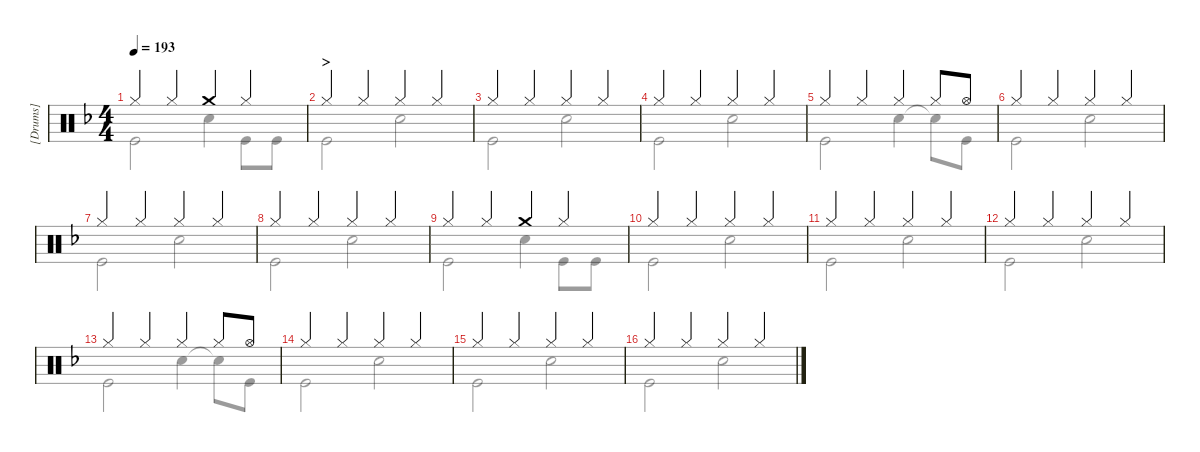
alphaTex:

\hideDynamics
\bracketExtendMode groupsimilarinstruments
\firstSystemTrackNameMode fullname
\otherSystemsTrackNameMode fullname
\otherSystemsTrackNameOrientation horizontal
\track ("[Drums]" "Drums") {instrument percussion}
\staff {score}
\articulation defaults
\voice
\ts (4 4)
\tempo 193
\clef neutral
\ks f "Hi-Hat (closed)".4{dy ff} "Hi-Hat (closed)".4 "Crash medium (hit)".4 "Hi-Hat (closed)".4
|
\section ("" ">")
"Hi-Hat (closed)".4 "Hi-Hat (closed)".4 "Hi-Hat (closed)".4 "Hi-Hat (closed)".4 |
"Hi-Hat (closed)".4 "Hi-Hat (closed)".4 "Hi-Hat (closed)".4 "Hi-Hat (closed)".4 |
"Hi-Hat (closed)".4 "Hi-Hat (closed)".4 "Hi-Hat (closed)".4 "Hi-Hat (closed)".4 |
"Hi-Hat (closed)".4 "Hi-Hat (closed)".4 "Hi-Hat (closed)".4 "Hi-Hat (closed)".8 "Hi-Hat (open)".8 |
"Hi-Hat (closed)".4 "Hi-Hat (closed)".4 "Hi-Hat (closed)".4 "Hi-Hat (closed)".4 |
"Hi-Hat (closed)".4 "Hi-Hat (closed)".4 "Hi-Hat (closed)".4 "Hi-Hat (closed)".4 |
"Hi-Hat (closed)".4 "Hi-Hat (closed)".4 "Hi-Hat (closed)".4 "Hi-Hat (closed)".4 |
"Hi-Hat (closed)".4 "Hi-Hat (closed)".4 "Crash medium (hit)".4 "Hi-Hat (closed)".4 |
"Hi-Hat (closed)".4 "Hi-Hat (closed)".4 "Hi-Hat (closed)".4 "Hi-Hat (closed)".4 |
"Hi-Hat (closed)".4 "Hi-Hat (closed)".4 "Hi-Hat (closed)".4 "Hi-Hat (closed)".4 |
"Hi-Hat (closed)".4 "Hi-Hat (closed)".4 "Hi-Hat (closed)".4 "Hi-Hat (closed)".4 |
"Hi-Hat (closed)".4 "Hi-Hat (closed)".4 "Hi-Hat (closed)".4 "Hi-Hat (closed)".8 "Hi-Hat (open)".8 |
"Hi-Hat (closed)".4 "Hi-Hat (closed)".4 "Hi-Hat (closed)".4 "Hi-Hat (closed)".4 |
"Hi-Hat (closed)".4 "Hi-Hat (closed)".4 "Hi-Hat (closed)".4 "Hi-Hat (closed)".4 |
"Hi-Hat (closed)".4 "Hi-Hat (closed)".4 "Hi-Hat (closed)".4 "Hi-Hat (closed)".4
\voice
\clef neutral
\ottava regular
\simile none
\ks f "Kick (hit)".2{dy f} "Snare (hit) 2".4 "Kick (hit)".8 "Kick (hit)".8
|
"Kick (hit)".2 "Snare (hit) 2".2 |
"Kick (hit)".2 "Snare (hit) 2".2 |
"Kick (hit)".2 "Snare (hit) 2".2 |
"Kick (hit)".2 "Snare (hit) 2".4 "Snare (hit) 2"{t}.8 "Kick (hit)".8 |
"Kick (hit)".2 "Snare (hit) 2".2 |
"Kick (hit)".2 "Snare (hit) 2".2 |
"Kick (hit)".2 "Snare (hit) 2".2 |
"Kick (hit)".2 "Snare (hit) 2".4 "Kick (hit)".8 "Kick (hit)".8 |
"Kick (hit)".2 "Snare (hit) 2".2 |
"Kick (hit)".2 "Snare (hit) 2".2 |
"Kick (hit)".2 "Snare (hit) 2".2 |
"Kick (hit)".2 "Snare (hit) 2".4 "Snare (hit) 2"{t}.8 "Kick (hit)".8 |
"Kick (hit)".2 "Snare (hit) 2".2 |
"Kick (hit)".2 "Snare (hit) 2".2 |
"Kick (hit)".2 "Snare (hit) 2".2
